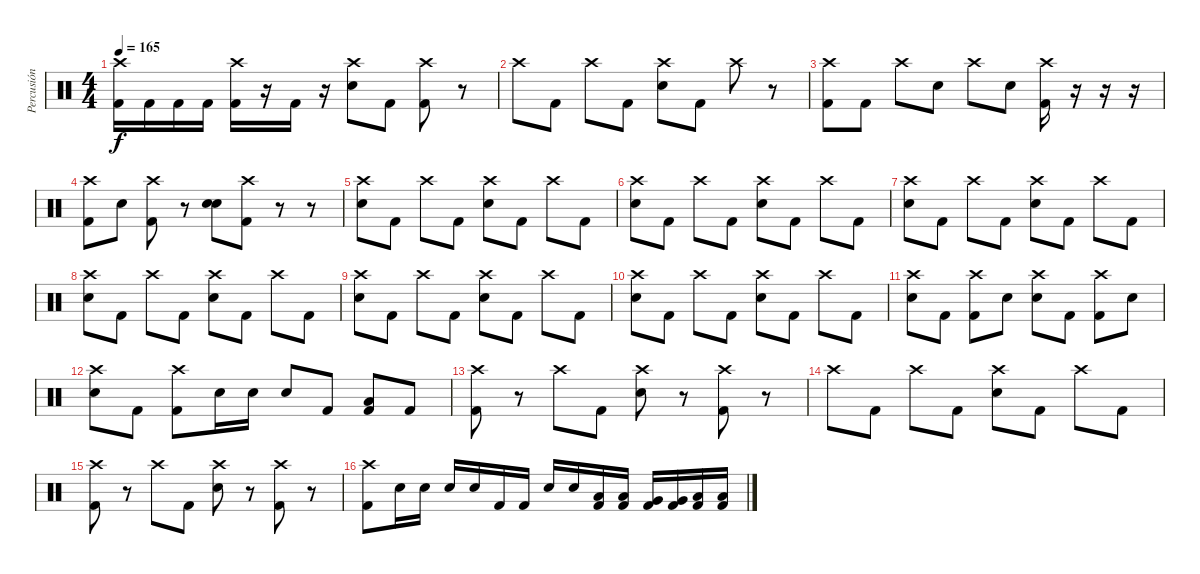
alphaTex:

\track ("Percusión" "Percusión") {instrument percussion}
\staff {score}
\articulation defaults
\ts (4 4)
\tempo 165
\clef neutral
\ks c
("Crash high (hit)" "Kick (hit) 2").16{dy f} "Kick (hit) 2".16 "Kick (hit) 2".16 "Kick (hit) 2".16 ("Crash high (hit)" "Kick (hit) 2").16 r.16 "Kick (hit) 2".16 r.16 ("Crash high (hit)" "Electric Snare (hit)").8 "Kick (hit) 2".8 ("Crash high (hit)" "Kick (hit) 2").8 r.8 |
"Crash high (hit)".8 "Kick (hit) 2".8 "Crash high (hit)".8 "Kick (hit) 2".8 ("Crash high (hit)" "Electric Snare (hit)").8 "Kick (hit) 2".8 "Crash high (hit)".8 r.8 |
("Crash high (hit)" "Kick (hit) 2").8 "Kick (hit) 2".8 "Crash high (hit)".8 "Electric Snare (hit)".8 "Crash high (hit)".8 "Electric Snare (hit)".8 ("Crash high (hit)" "Kick (hit) 2").16 r.16 r.16 r.16 |
("Crash high (hit)" "Kick (hit) 2").8 "Electric Snare (hit)".8 ("Crash high (hit)" "Kick (hit) 2").8 r.8 ("Electric Snare (hit)" "Electric Snare (hit)").8{bu 60} ("Crash high (hit)" "Kick (hit) 2").8 r.8 r.8 |
("Crash high (hit)" "Electric Snare (hit)").8 "Kick (hit) 2".8 "Crash high (hit)".8 "Kick (hit) 2".8 ("Crash high (hit)" "Electric Snare (hit)").8 "Kick (hit) 2".8 "Crash high (hit)".8 "Kick (hit) 2".8 |
("Crash high (hit)" "Electric Snare (hit)").8 "Kick (hit) 2".8 "Crash high (hit)".8 "Kick (hit) 2".8 ("Crash high (hit)" "Electric Snare (hit)").8 "Kick (hit) 2".8 "Crash high (hit)".8 "Kick (hit) 2".8 |
("Crash high (hit)" "Electric Snare (hit)").8 "Kick (hit) 2".8 "Crash high (hit)".8 "Kick (hit) 2".8 ("Crash high (hit)" "Electric Snare (hit)").8 "Kick (hit) 2".8 "Crash high (hit)".8 "Kick (hit) 2".8 |
("Crash high (hit)" "Electric Snare (hit)").8 "Kick (hit) 2".8 "Crash high (hit)".8 "Kick (hit) 2".8 ("Crash high (hit)" "Electric Snare (hit)").8 "Kick (hit) 2".8 "Crash high (hit)".8 "Kick (hit) 2".8 |
("Crash high (hit)" "Electric Snare (hit)").8 "Kick (hit) 2".8 "Crash high (hit)".8 "Kick (hit) 2".8 ("Crash high (hit)" "Electric Snare (hit)").8 "Kick (hit) 2".8 "Crash high (hit)".8 "Kick (hit) 2".8 |
("Crash high (hit)" "Electric Snare (hit)").8 "Kick (hit) 2".8 "Crash high (hit)".8 "Kick (hit) 2".8 ("Crash high (hit)" "Electric Snare (hit)").8 "Kick (hit) 2".8 "Crash high (hit)".8 "Kick (hit) 2".8 |
("Crash high (hit)" "Electric Snare (hit)").8 "Kick (hit) 2".8 ("Crash high (hit)" "Kick (hit) 2").8 "Electric Snare (hit)".8 ("Crash high (hit)" "Electric Snare (hit)").8 "Kick (hit) 2".8 ("Crash high (hit)" "Kick (hit) 2").8 "Electric Snare (hit)".8 |
("Crash high (hit)" "Electric Snare (hit)").8 "Kick (hit) 2".8 ("Crash high (hit)" "Kick (hit) 2").8 "Electric Snare (hit)".16 "Electric Snare (hit)".16 "Electric Snare (hit)".8 "Kick (hit) 2".8 ("Low Tom (hit)" "Kick (hit) 2").8 "Kick (hit) 2".8 |
("Crash high (hit)" "Kick (hit) 2").8 r.8 "Crash high (hit)".8 "Kick (hit) 2".8 ("Crash high (hit)" "Electric Snare (hit)").8 r.8 ("Crash high (hit)" "Kick (hit) 2").8 r.8 |
"Crash high (hit)".8 "Kick (hit) 2".8 "Crash high (hit)".8 "Kick (hit) 2".8 ("Crash high (hit)" "Electric Snare (hit)").8 "Kick (hit) 2".8 "Crash high (hit)".8 "Kick (hit) 2".8 |
("Crash high (hit)" "Kick (hit) 2").8 r.8 "Crash high (hit)".8 "Kick (hit) 2".8 ("Crash high (hit)" "Electric Snare (hit)").8 r.8 ("Crash high (hit)" "Kick (hit) 2").8 r.8 |
("Crash high (hit)" "Kick (hit) 2").8 "Electric Snare (hit)".16 "Electric Snare (hit)".16 "Electric Snare (hit)".16 "Electric Snare (hit)".16 "Kick (hit) 2".16 "Kick (hit) 2".16 "Electric Snare (hit)".16 "Electric Snare (hit)".16 ("Low Tom (hit)" "Kick (hit) 2").16 ("Low Tom (hit)" "Kick (hit) 2").16 ("Very Low Tom (hit)" "Kick (hit) 2").16 ("Very Low Tom (hit)" "Kick (hit) 2").16 ("Low Floor Tom (hit)" "Kick (hit) 2").16 ("Low Floor Tom (hit)" "Kick (hit) 2").16
